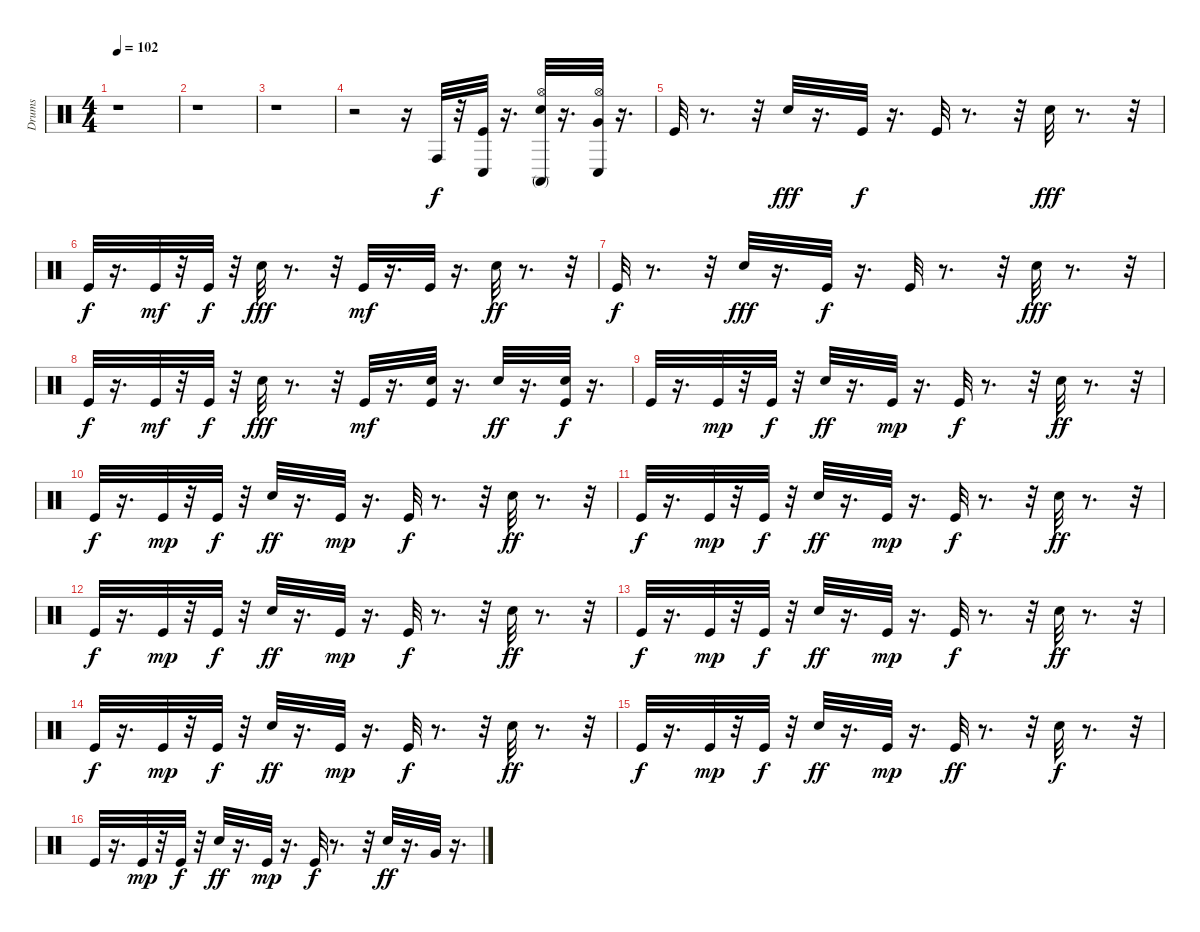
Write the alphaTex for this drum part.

\track ("Drums" "Drums") {instrument percussion}
\staff {score}
\articulation defaults
\ts (4 4)
\tempo 102
\clef neutral
\ks c
r.1{dy f} |
r.1 |
r.1 |
r.2 r.16 "Conga high (hit)".32 r.32 ("Kick (hit)" "Conga low (hit)").32 r.16{d} ("Hi-Hat (open)" "Electric Snare (hit)" "Conga high (mute)").32 r.16{d} ("Very Low Tom (hit)" "Hi-Hat (open)" "Conga low (hit)").32 r.16{d} |
"Kick (hit)".32 r.8{d} r.32 "Electric Snare (hit)".32{dy fff} r.16{d} "Kick (hit)".32{dy f} r.16{d} "Kick (hit)".32 r.8{d} r.32 "Electric Snare (hit)".32{dy fff} r.8{d} r.32 |
"Kick (hit)".32{dy f} r.16{d} "Kick (hit)".32{dy mf} r.32 "Kick (hit)".32{dy f} r.32 "Electric Snare (hit)".32{dy fff} r.8{d} r.32 "Kick (hit)".32{dy mf} r.16{d} "Kick (hit)".32 r.16{d} "Electric Snare (hit)".32{dy ff} r.8{d} r.32 |
"Kick (hit)".32{dy f} r.8{d} r.32 "Electric Snare (hit)".32{dy fff} r.16{d} "Kick (hit)".32{dy f} r.16{d} "Kick (hit)".32 r.8{d} r.32 "Electric Snare (hit)".32{dy fff} r.8{d} r.32 |
"Kick (hit)".32{dy f} r.16{d} "Kick (hit)".32{dy mf} r.32 "Kick (hit)".32{dy f} r.32 "Electric Snare (hit)".32{dy fff} r.8{d} r.32 "Kick (hit)".32{dy mf} r.16{d} ("Electric Snare (hit)" "Kick (hit)").32 r.16{d} "Electric Snare (hit)".32{dy ff} r.16{d} ("Kick (hit)" "Electric Snare (hit)").32{dy f} r.16{d} |
"Kick (hit)".32 r.16{d} "Kick (hit)".32{dy mp} r.32 "Kick (hit)".32{dy f} r.32 "Electric Snare (hit)".32{dy ff} r.16{d} "Kick (hit)".32{dy mp} r.16{d} "Kick (hit)".32{dy f} r.8{d} r.32 "Electric Snare (hit)".32{dy ff} r.8{d} r.32 |
"Kick (hit)".32{dy f} r.16{d} "Kick (hit)".32{dy mp} r.32 "Kick (hit)".32{dy f} r.32 "Electric Snare (hit)".32{dy ff} r.16{d} "Kick (hit)".32{dy mp} r.16{d} "Kick (hit)".32{dy f} r.8{d} r.32 "Electric Snare (hit)".32{dy ff} r.8{d} r.32 |
"Kick (hit)".32{dy f} r.16{d} "Kick (hit)".32{dy mp} r.32 "Kick (hit)".32{dy f} r.32 "Electric Snare (hit)".32{dy ff} r.16{d} "Kick (hit)".32{dy mp} r.16{d} "Kick (hit)".32{dy f} r.8{d} r.32 "Electric Snare (hit)".32{dy ff} r.8{d} r.32 |
"Kick (hit)".32{dy f} r.16{d} "Kick (hit)".32{dy mp} r.32 "Kick (hit)".32{dy f} r.32 "Electric Snare (hit)".32{dy ff} r.16{d} "Kick (hit)".32{dy mp} r.16{d} "Kick (hit)".32{dy f} r.8{d} r.32 "Electric Snare (hit)".32{dy ff} r.8{d} r.32 |
"Kick (hit)".32{dy f} r.16{d} "Kick (hit)".32{dy mp} r.32 "Kick (hit)".32{dy f} r.32 "Electric Snare (hit)".32{dy ff} r.16{d} "Kick (hit)".32{dy mp} r.16{d} "Kick (hit)".32{dy f} r.8{d} r.32 "Electric Snare (hit)".32{dy ff} r.8{d} r.32 |
"Kick (hit)".32{dy f} r.16{d} "Kick (hit)".32{dy mp} r.32 "Kick (hit)".32{dy f} r.32 "Electric Snare (hit)".32{dy ff} r.16{d} "Kick (hit)".32{dy mp} r.16{d} "Kick (hit)".32{dy f} r.8{d} r.32 "Electric Snare (hit)".32{dy ff} r.8{d} r.32 |
"Kick (hit)".32{dy f} r.16{d} "Kick (hit)".32{dy mp} r.32 "Kick (hit)".32{dy f} r.32 "Electric Snare (hit)".32{dy ff} r.16{d} "Kick (hit)".32{dy mp} r.16{d} "Kick (hit)".32{dy ff} r.8{d} r.32 "Electric Snare (hit)".32{dy f} r.8{d} r.32 |
"Kick (hit)".32 r.16{d} "Kick (hit)".32{dy mp} r.32 "Kick (hit)".32{dy f} r.32 "Electric Snare (hit)".32{dy ff} r.16{d} "Kick (hit)".32{dy mp} r.16{d} "Kick (hit)".32{dy f} r.8{d} r.32 "Electric Snare (hit)".32{dy ff} r.16{d} "Very Low Tom (hit)".32 r.16{d}
